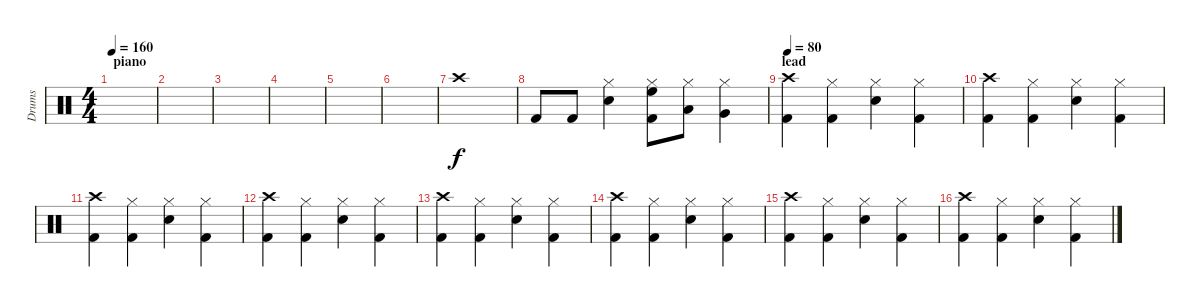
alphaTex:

\track ("Drums" "Drums") {instrument percussion}
\staff {score}
\articulation defaults
\ts (4 4)
\section ("" "piano")
\tempo 160
\clef neutral
\ks c
|
|
|
|
|
|
"Crash high (hit)".1 |
"Kick (hit) 2".8 "Kick (hit) 2".8 ("Hi-Hat (closed)" "Electric Snare (hit)").4 ("Hi-Hat (closed)" "High Floor Tom (hit)" "Kick (hit) 2").8 ("Low Tom (hit)" "Hi-Hat (closed)").8 ("Very Low Tom (hit)" "Hi-Hat (closed)").4 |
\section ("" "lead")
\tempo 80
("Crash high (hit)" "Kick (hit) 2").4 ("Hi-Hat (closed)" "Kick (hit) 2").4 ("Hi-Hat (closed)" "Electric Snare (hit)").4 ("Hi-Hat (closed)" "Kick (hit) 2").4 |
("Crash high (hit)" "Kick (hit) 2").4 ("Hi-Hat (closed)" "Kick (hit) 2").4 ("Hi-Hat (closed)" "Electric Snare (hit)").4 ("Hi-Hat (closed)" "Kick (hit) 2").4 |
("Crash high (hit)" "Kick (hit) 2").4 ("Hi-Hat (closed)" "Kick (hit) 2").4 ("Hi-Hat (closed)" "Electric Snare (hit)").4 ("Hi-Hat (closed)" "Kick (hit) 2").4 |
("Crash high (hit)" "Kick (hit) 2").4 ("Hi-Hat (closed)" "Kick (hit) 2").4 ("Hi-Hat (closed)" "Electric Snare (hit)").4 ("Hi-Hat (closed)" "Kick (hit) 2").4 |
("Crash high (hit)" "Kick (hit) 2").4 ("Hi-Hat (closed)" "Kick (hit) 2").4 ("Hi-Hat (closed)" "Electric Snare (hit)").4 ("Hi-Hat (closed)" "Kick (hit) 2").4 |
("Crash high (hit)" "Kick (hit) 2").4 ("Hi-Hat (closed)" "Kick (hit) 2").4 ("Hi-Hat (closed)" "Electric Snare (hit)").4 ("Hi-Hat (closed)" "Kick (hit) 2").4 |
("Crash high (hit)" "Kick (hit) 2").4 ("Hi-Hat (closed)" "Kick (hit) 2").4 ("Hi-Hat (closed)" "Electric Snare (hit)").4 ("Hi-Hat (closed)" "Kick (hit) 2").4 |
("Crash high (hit)" "Kick (hit) 2").4 ("Hi-Hat (closed)" "Kick (hit) 2").4 ("Hi-Hat (closed)" "Electric Snare (hit)").4 ("Hi-Hat (closed)" "Kick (hit) 2").4
